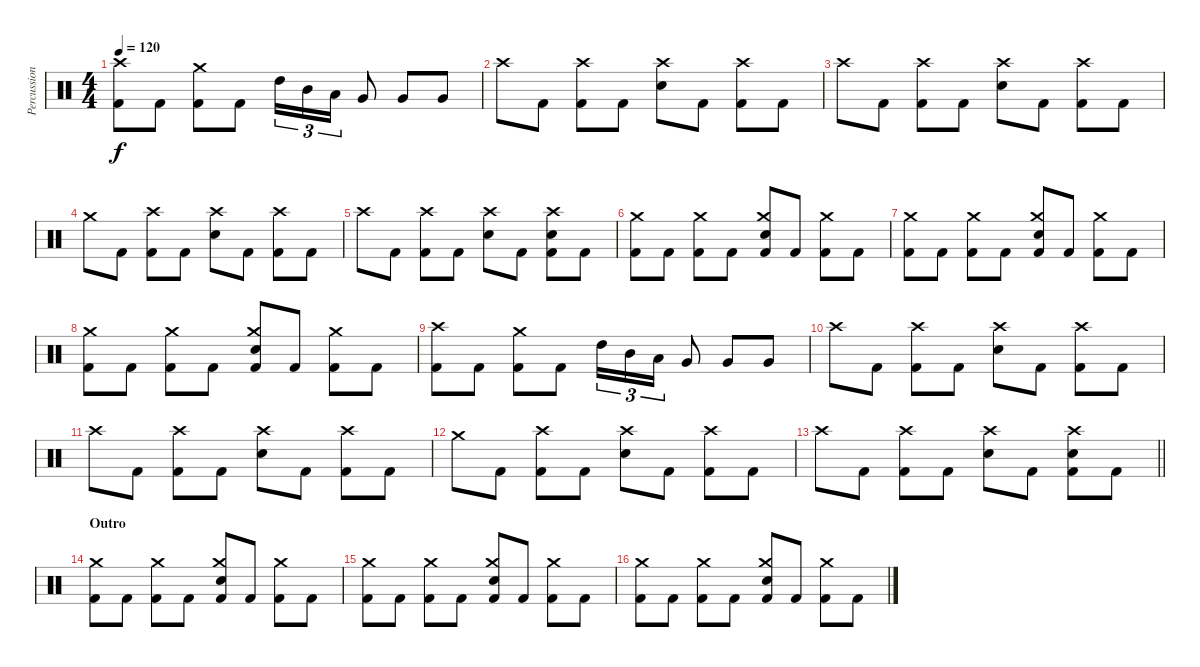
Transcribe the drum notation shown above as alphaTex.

\track ("Percussion" "Percussion") {instrument percussion}
\staff {score}
\articulation defaults
\ts (4 4)
\tempo 120
\clef neutral
\ks c
("Crash high (hit)" "Kick (hit) 2").8{dy f} "Kick (hit) 2".8 ("Crash medium (hit)" "Kick (hit) 2").8 "Kick (hit) 2".8 "High Tom (hit)".16{tu (3 2)} "Mid Tom (hit)".16{tu (3 2)} "Low Tom (hit)".16{tu (3 2)} "Very Low Tom (hit)".8 "Very Low Tom (hit)".8 "Very Low Tom (hit)".8 |
"Crash high (hit)".8 "Kick (hit) 2".8 ("Crash high (hit)" "Kick (hit) 2").8 "Kick (hit) 2".8 ("Crash high (hit)" "Snare (hit) 2").8 "Kick (hit) 2".8 ("Crash high (hit)" "Kick (hit) 2").8 "Kick (hit) 2".8 |
"Crash high (hit)".8 "Kick (hit) 2".8 ("Crash high (hit)" "Kick (hit) 2").8 "Kick (hit) 2".8 ("Crash high (hit)" "Snare (hit) 2").8 "Kick (hit) 2".8 ("Crash high (hit)" "Kick (hit) 2").8 "Kick (hit) 2".8 |
"Crash medium (hit)".8 "Kick (hit) 2".8 ("Crash high (hit)" "Kick (hit) 2").8 "Kick (hit) 2".8 ("Crash high (hit)" "Snare (hit) 2").8 "Kick (hit) 2".8 ("Crash high (hit)" "Kick (hit) 2").8 "Kick (hit) 2".8 |
"Crash high (hit)".8 "Kick (hit) 2".8 ("Crash high (hit)" "Kick (hit) 2").8 "Kick (hit) 2".8 ("Crash high (hit)" "Snare (hit) 2").8 "Kick (hit) 2".8 ("Crash high (hit)" "Snare (hit) 2" "Kick (hit) 2").8 "Kick (hit) 2".8 |
("Crash medium (hit)" "Kick (hit) 2").8 "Kick (hit) 2".8 ("Crash medium (hit)" "Kick (hit) 2").8 "Kick (hit) 2".8 ("Crash medium (hit)" "Snare (hit) 2" "Kick (hit) 2").8 "Kick (hit) 2".8 ("Crash medium (hit)" "Kick (hit) 2").8 "Kick (hit) 2".8 |
("Crash medium (hit)" "Kick (hit) 2").8 "Kick (hit) 2".8 ("Crash medium (hit)" "Kick (hit) 2").8 "Kick (hit) 2".8 ("Crash medium (hit)" "Snare (hit) 2" "Kick (hit) 2").8 "Kick (hit) 2".8 ("Crash medium (hit)" "Kick (hit) 2").8 "Kick (hit) 2".8 |
("Crash medium (hit)" "Kick (hit) 2").8 "Kick (hit) 2".8 ("Crash medium (hit)" "Kick (hit) 2").8 "Kick (hit) 2".8 ("Crash medium (hit)" "Snare (hit) 2" "Kick (hit) 2").8 "Kick (hit) 2".8 ("Crash medium (hit)" "Kick (hit) 2").8 "Kick (hit) 2".8 |
("Crash high (hit)" "Kick (hit) 2").8 "Kick (hit) 2".8 ("Crash medium (hit)" "Kick (hit) 2").8 "Kick (hit) 2".8 "High Tom (hit)".16{tu (3 2)} "Mid Tom (hit)".16{tu (3 2)} "Low Tom (hit)".16{tu (3 2)} "Very Low Tom (hit)".8 "Very Low Tom (hit)".8 "Very Low Tom (hit)".8 |
"Crash high (hit)".8 "Kick (hit) 2".8 ("Crash high (hit)" "Kick (hit) 2").8 "Kick (hit) 2".8 ("Crash high (hit)" "Snare (hit) 2").8 "Kick (hit) 2".8 ("Crash high (hit)" "Kick (hit) 2").8 "Kick (hit) 2".8 |
"Crash high (hit)".8 "Kick (hit) 2".8 ("Crash high (hit)" "Kick (hit) 2").8 "Kick (hit) 2".8 ("Crash high (hit)" "Snare (hit) 2").8 "Kick (hit) 2".8 ("Crash high (hit)" "Kick (hit) 2").8 "Kick (hit) 2".8 |
"Crash medium (hit)".8 "Kick (hit) 2".8 ("Crash high (hit)" "Kick (hit) 2").8 "Kick (hit) 2".8 ("Crash high (hit)" "Snare (hit) 2").8 "Kick (hit) 2".8 ("Crash high (hit)" "Kick (hit) 2").8 "Kick (hit) 2".8 |
\barLineRight lightlight "Crash high (hit)".8 "Kick (hit) 2".8
("Crash high (hit)" "Kick (hit) 2").8 "Kick (hit) 2".8 ("Crash high (hit)" "Snare (hit) 2").8 "Kick (hit) 2".8 ("Crash high (hit)" "Snare (hit) 2" "Kick (hit) 2").8 "Kick (hit) 2".8 |
\section ("" "Outro")
("Crash medium (hit)" "Kick (hit) 2").8 "Kick (hit) 2".8 ("Crash medium (hit)" "Kick (hit) 2").8 "Kick (hit) 2".8 ("Crash medium (hit)" "Snare (hit) 2" "Kick (hit) 2").8 "Kick (hit) 2".8 ("Crash medium (hit)" "Kick (hit) 2").8 "Kick (hit) 2".8 |
("Crash medium (hit)" "Kick (hit) 2").8 "Kick (hit) 2".8 ("Crash medium (hit)" "Kick (hit) 2").8 "Kick (hit) 2".8 ("Crash medium (hit)" "Snare (hit) 2" "Kick (hit) 2").8 "Kick (hit) 2".8 ("Crash medium (hit)" "Kick (hit) 2").8 "Kick (hit) 2".8 |
("Crash medium (hit)" "Kick (hit) 2").8 "Kick (hit) 2".8 ("Crash medium (hit)" "Kick (hit) 2").8 "Kick (hit) 2".8 ("Crash medium (hit)" "Snare (hit) 2" "Kick (hit) 2").8 "Kick (hit) 2".8 ("Crash medium (hit)" "Kick (hit) 2").8 "Kick (hit) 2".8
